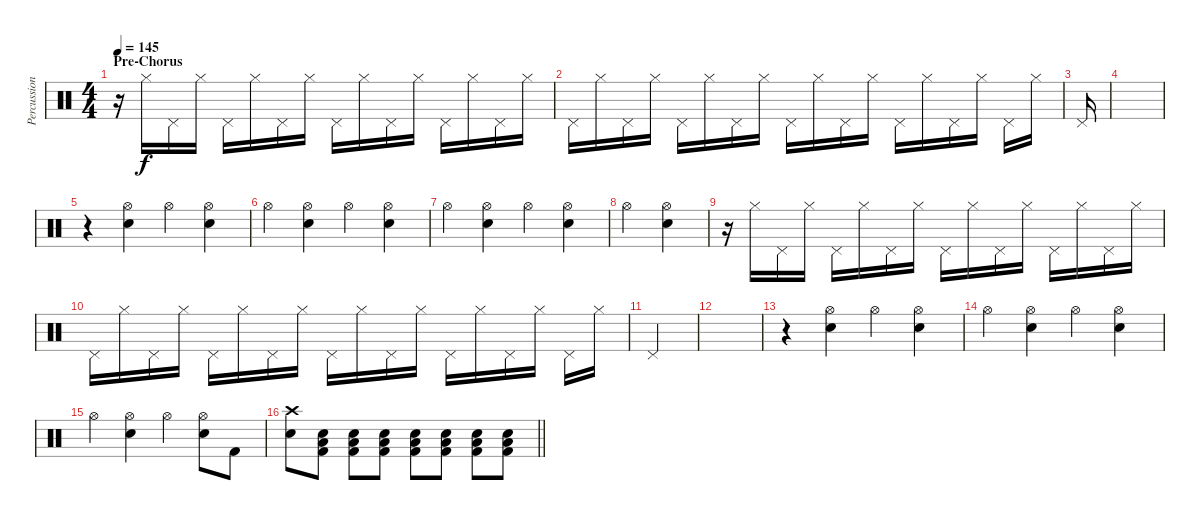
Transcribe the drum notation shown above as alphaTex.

\track ("Percussion" "Percussion") {instrument percussion}
\staff {score}
\articulation defaults
\ts (4 4)
\section ("" "Pre-Chorus")
\tempo 145
\clef neutral
\ks c
r.16{dy f} "Hi-Hat (closed)".16 "Pedal Hi-Hat (hit)".16 "Hi-Hat (closed)".16 "Pedal Hi-Hat (hit)".16 "Hi-Hat (closed)".16 "Pedal Hi-Hat (hit)".16 "Hi-Hat (closed)".16 "Pedal Hi-Hat (hit)".16 "Hi-Hat (closed)".16 "Pedal Hi-Hat (hit)".16 "Hi-Hat (closed)".16 "Pedal Hi-Hat (hit)".16 "Hi-Hat (closed)".16 "Pedal Hi-Hat (hit)".16 "Hi-Hat (closed)".16 |
"Pedal Hi-Hat (hit)".16 "Hi-Hat (closed)".16 "Pedal Hi-Hat (hit)".16 "Hi-Hat (closed)".16 "Pedal Hi-Hat (hit)".16 "Hi-Hat (closed)".16 "Pedal Hi-Hat (hit)".16 "Hi-Hat (closed)".16 "Pedal Hi-Hat (hit)".16 "Hi-Hat (closed)".16 "Pedal Hi-Hat (hit)".16 "Hi-Hat (closed)".16 "Pedal Hi-Hat (hit)".16 "Hi-Hat (closed)".16 "Pedal Hi-Hat (hit)".16 "Hi-Hat (closed)".16 "Pedal Hi-Hat (hit)".16 "Hi-Hat (closed)".16 |
"Pedal Hi-Hat (hit)".16 |
|
r.4 ("Hi-Hat (open)" "Electric Snare (hit)").4 "Hi-Hat (open)".4 ("Hi-Hat (open)" "Electric Snare (hit)").4 |
"Hi-Hat (open)".4 ("Hi-Hat (open)" "Electric Snare (hit)").4 "Hi-Hat (open)".4 ("Hi-Hat (open)" "Electric Snare (hit)").4 |
"Hi-Hat (open)".4 ("Hi-Hat (open)" "Electric Snare (hit)").4 "Hi-Hat (open)".4 ("Hi-Hat (open)" "Electric Snare (hit)").4 |
"Hi-Hat (open)".4 ("Hi-Hat (open)" "Electric Snare (hit)").4 |
r.16 "Hi-Hat (closed)".16 "Pedal Hi-Hat (hit)".16 "Hi-Hat (closed)".16 "Pedal Hi-Hat (hit)".16 "Hi-Hat (closed)".16 "Pedal Hi-Hat (hit)".16 "Hi-Hat (closed)".16 "Pedal Hi-Hat (hit)".16 "Hi-Hat (closed)".16 "Pedal Hi-Hat (hit)".16 "Hi-Hat (closed)".16 "Pedal Hi-Hat (hit)".16 "Hi-Hat (closed)".16 "Pedal Hi-Hat (hit)".16 "Hi-Hat (closed)".16 |
"Pedal Hi-Hat (hit)".16 "Hi-Hat (closed)".16 "Pedal Hi-Hat (hit)".16 "Hi-Hat (closed)".16 "Pedal Hi-Hat (hit)".16 "Hi-Hat (closed)".16 "Pedal Hi-Hat (hit)".16 "Hi-Hat (closed)".16 "Pedal Hi-Hat (hit)".16 "Hi-Hat (closed)".16 "Pedal Hi-Hat (hit)".16 "Hi-Hat (closed)".16 "Pedal Hi-Hat (hit)".16 "Hi-Hat (closed)".16 "Pedal Hi-Hat (hit)".16 "Hi-Hat (closed)".16 "Pedal Hi-Hat (hit)".16 "Hi-Hat (closed)".16 |
"Pedal Hi-Hat (hit)".4 |
|
r.4 ("Hi-Hat (open)" "Electric Snare (hit)").4 "Hi-Hat (open)".4 ("Hi-Hat (open)" "Electric Snare (hit)").4 |
"Hi-Hat (open)".4 ("Hi-Hat (open)" "Electric Snare (hit)").4 "Hi-Hat (open)".4 ("Hi-Hat (open)" "Electric Snare (hit)").4 |
"Hi-Hat (open)".4 ("Hi-Hat (open)" "Electric Snare (hit)").4 "Hi-Hat (open)".4 ("Hi-Hat (open)" "Electric Snare (hit)").8 "Kick (hit) 2".8 |
\barLineRight lightlight
("Crash high (hit)" "Electric Snare (hit)").8 ("Kick (hit) 2" "Low Floor Tom (hit)" "Electric Snare (hit)").8 ("Kick (hit) 2" "Low Floor Tom (hit)" "Electric Snare (hit)").8 ("Kick (hit) 2" "Low Floor Tom (hit)" "Electric Snare (hit)").8 ("Kick (hit) 2" "Low Floor Tom (hit)" "Electric Snare (hit)").8 ("Kick (hit) 2" "Low Floor Tom (hit)" "Electric Snare (hit)").8 ("Kick (hit) 2" "Low Floor Tom (hit)" "Electric Snare (hit)").8 ("Kick (hit) 2" "Low Floor Tom (hit)" "Electric Snare (hit)").8
